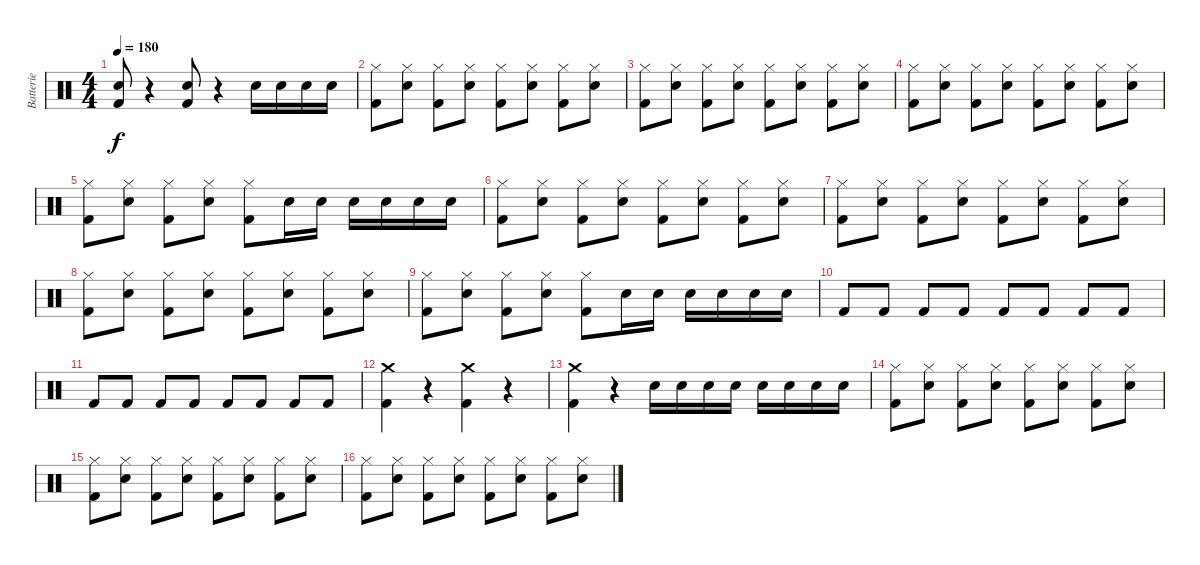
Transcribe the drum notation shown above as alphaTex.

\track ("Batterie" "Batterie") {instrument percussion}
\staff {score}
\articulation defaults
\ts (4 4)
\tempo 180
\clef neutral
\ks c
("Kick (hit) 2" "Electric Snare (hit)").8{dy f} r.4 ("Kick (hit) 2" "Electric Snare (hit)").8 r.4 "Electric Snare (hit)".16 "Electric Snare (hit)".16 "Electric Snare (hit)".16 "Electric Snare (hit)".16 |
("Kick (hit) 2" "Hi-Hat (closed)").8 ("Electric Snare (hit)" "Hi-Hat (closed)").8 ("Kick (hit) 2" "Hi-Hat (closed)").8 ("Electric Snare (hit)" "Hi-Hat (closed)").8 ("Kick (hit) 2" "Hi-Hat (closed)").8 ("Electric Snare (hit)" "Hi-Hat (closed)").8 ("Kick (hit) 2" "Hi-Hat (closed)").8 ("Electric Snare (hit)" "Hi-Hat (closed)").8 |
("Kick (hit) 2" "Hi-Hat (closed)").8 ("Electric Snare (hit)" "Hi-Hat (closed)").8 ("Kick (hit) 2" "Hi-Hat (closed)").8 ("Electric Snare (hit)" "Hi-Hat (closed)").8 ("Kick (hit) 2" "Hi-Hat (closed)").8 ("Electric Snare (hit)" "Hi-Hat (closed)").8 ("Kick (hit) 2" "Hi-Hat (closed)").8 ("Electric Snare (hit)" "Hi-Hat (closed)").8 |
("Kick (hit) 2" "Hi-Hat (closed)").8 ("Electric Snare (hit)" "Hi-Hat (closed)").8 ("Kick (hit) 2" "Hi-Hat (closed)").8 ("Electric Snare (hit)" "Hi-Hat (closed)").8 ("Kick (hit) 2" "Hi-Hat (closed)").8 ("Electric Snare (hit)" "Hi-Hat (closed)").8 ("Kick (hit) 2" "Hi-Hat (closed)").8 ("Electric Snare (hit)" "Hi-Hat (closed)").8 |
("Kick (hit) 2" "Hi-Hat (closed)").8 ("Electric Snare (hit)" "Hi-Hat (closed)").8 ("Kick (hit) 2" "Hi-Hat (closed)").8 ("Electric Snare (hit)" "Hi-Hat (closed)").8 ("Kick (hit) 2" "Hi-Hat (closed)").8 "Electric Snare (hit)".16 "Electric Snare (hit)".16 "Electric Snare (hit)".16 "Electric Snare (hit)".16 "Electric Snare (hit)".16 "Electric Snare (hit)".16 |
("Kick (hit) 2" "Hi-Hat (closed)").8 ("Electric Snare (hit)" "Hi-Hat (closed)").8 ("Kick (hit) 2" "Hi-Hat (closed)").8 ("Electric Snare (hit)" "Hi-Hat (closed)").8 ("Kick (hit) 2" "Hi-Hat (closed)").8 ("Electric Snare (hit)" "Hi-Hat (closed)").8 ("Kick (hit) 2" "Hi-Hat (closed)").8 ("Electric Snare (hit)" "Hi-Hat (closed)").8 |
("Kick (hit) 2" "Hi-Hat (closed)").8 ("Electric Snare (hit)" "Hi-Hat (closed)").8 ("Kick (hit) 2" "Hi-Hat (closed)").8 ("Electric Snare (hit)" "Hi-Hat (closed)").8 ("Kick (hit) 2" "Hi-Hat (closed)").8 ("Electric Snare (hit)" "Hi-Hat (closed)").8 ("Kick (hit) 2" "Hi-Hat (closed)").8 ("Electric Snare (hit)" "Hi-Hat (closed)").8 |
("Kick (hit) 2" "Hi-Hat (closed)").8 ("Electric Snare (hit)" "Hi-Hat (closed)").8 ("Kick (hit) 2" "Hi-Hat (closed)").8 ("Electric Snare (hit)" "Hi-Hat (closed)").8 ("Kick (hit) 2" "Hi-Hat (closed)").8 ("Electric Snare (hit)" "Hi-Hat (closed)").8 ("Kick (hit) 2" "Hi-Hat (closed)").8 ("Electric Snare (hit)" "Hi-Hat (closed)").8 |
("Kick (hit) 2" "Hi-Hat (closed)").8 ("Electric Snare (hit)" "Hi-Hat (closed)").8 ("Kick (hit) 2" "Hi-Hat (closed)").8 ("Electric Snare (hit)" "Hi-Hat (closed)").8 ("Kick (hit) 2" "Hi-Hat (closed)").8 "Electric Snare (hit)".16 "Electric Snare (hit)".16 "Electric Snare (hit)".16 "Electric Snare (hit)".16 "Electric Snare (hit)".16 "Electric Snare (hit)".16 |
"Kick (hit) 2".8 "Kick (hit) 2".8 "Kick (hit) 2".8 "Kick (hit) 2".8 "Kick (hit) 2".8 "Kick (hit) 2".8 "Kick (hit) 2".8 "Kick (hit) 2".8 |
"Kick (hit) 2".8 "Kick (hit) 2".8 "Kick (hit) 2".8 "Kick (hit) 2".8 "Kick (hit) 2".8 "Kick (hit) 2".8 "Kick (hit) 2".8 "Kick (hit) 2".8 |
("Crash medium (hit)" "Kick (hit) 2").4 r.4 ("Crash medium (hit)" "Kick (hit) 2").4 r.4 |
("Crash medium (hit)" "Kick (hit) 2").4 r.4 "Electric Snare (hit)".16 "Electric Snare (hit)".16 "Electric Snare (hit)".16 "Electric Snare (hit)".16 "Electric Snare (hit)".16 "Electric Snare (hit)".16 "Electric Snare (hit)".16 "Electric Snare (hit)".16 |
("Kick (hit) 2" "Hi-Hat (closed)").8 ("Electric Snare (hit)" "Hi-Hat (closed)").8 ("Kick (hit) 2" "Hi-Hat (closed)").8 ("Electric Snare (hit)" "Hi-Hat (closed)").8 ("Kick (hit) 2" "Hi-Hat (closed)").8 ("Electric Snare (hit)" "Hi-Hat (closed)").8 ("Kick (hit) 2" "Hi-Hat (closed)").8 ("Electric Snare (hit)" "Hi-Hat (closed)").8 |
("Kick (hit) 2" "Hi-Hat (closed)").8 ("Electric Snare (hit)" "Hi-Hat (closed)").8 ("Kick (hit) 2" "Hi-Hat (closed)").8 ("Electric Snare (hit)" "Hi-Hat (closed)").8 ("Kick (hit) 2" "Hi-Hat (closed)").8 ("Electric Snare (hit)" "Hi-Hat (closed)").8 ("Kick (hit) 2" "Hi-Hat (closed)").8 ("Electric Snare (hit)" "Hi-Hat (closed)").8 |
("Kick (hit) 2" "Hi-Hat (closed)").8 ("Electric Snare (hit)" "Hi-Hat (closed)").8 ("Kick (hit) 2" "Hi-Hat (closed)").8 ("Electric Snare (hit)" "Hi-Hat (closed)").8 ("Kick (hit) 2" "Hi-Hat (closed)").8 ("Electric Snare (hit)" "Hi-Hat (closed)").8 ("Kick (hit) 2" "Hi-Hat (closed)").8 ("Electric Snare (hit)" "Hi-Hat (closed)").8
